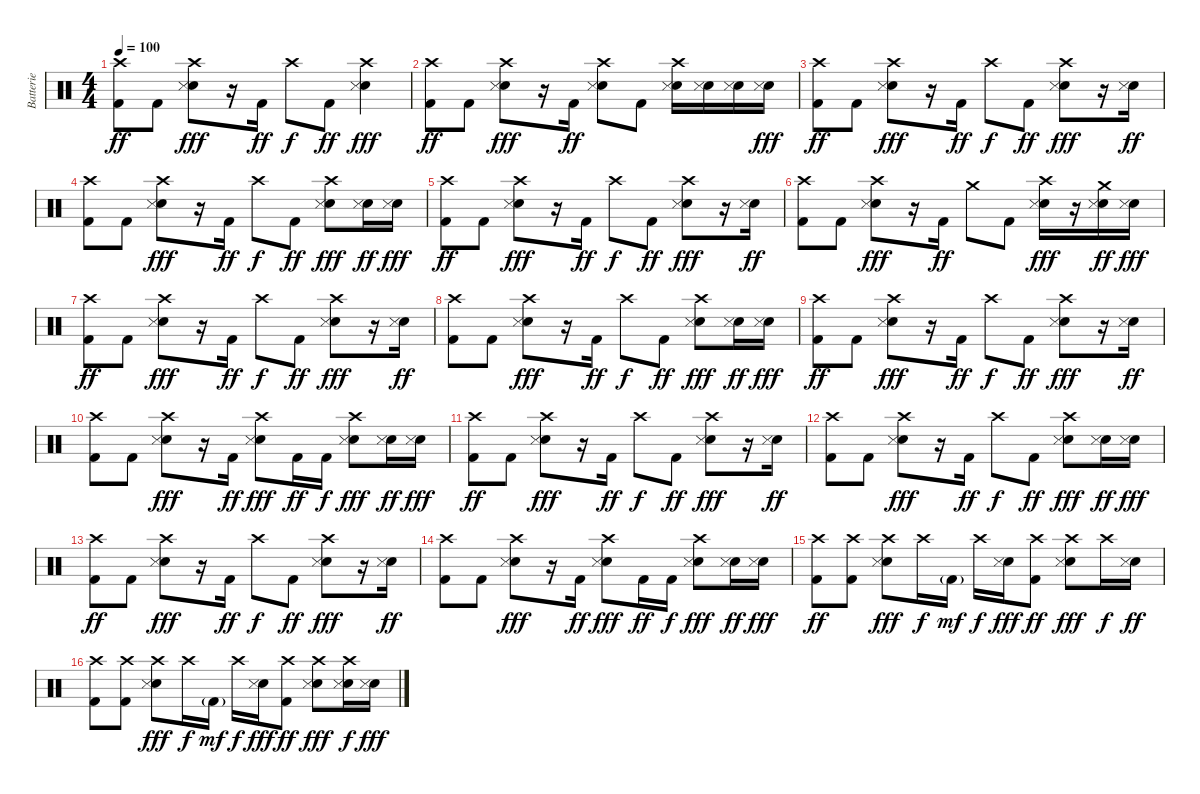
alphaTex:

\track ("Batterie" "Batterie") {instrument percussion}
\staff {score}
\articulation defaults
\ts (4 4)
\tempo 100
\clef neutral
\ks c
("Crash high (hit)" "Kick (hit) 2").8{dy ff} "Kick (hit) 2".8 ("Crash high (hit)" "Snare (hit) 2" "Snare (side stick) 3").8{dy fff} r.16 "Kick (hit) 2".16{dy ff} "Crash high (hit)".8{dy f} "Kick (hit) 2".8{dy ff} ("Crash high (hit)" "Snare (hit) 2" "Snare (side stick) 3").4{dy fff} |
("Crash high (hit)" "Kick (hit) 2").8{dy ff} "Kick (hit) 2".8 ("Crash high (hit)" "Snare (hit) 2" "Snare (side stick) 3").8{dy fff} r.16 "Kick (hit) 2".16{dy ff} ("Crash high (hit)" "Snare (hit) 2" "Snare (side stick) 3").8 "Kick (hit) 2".8 ("Crash high (hit)" "Snare (hit) 2" "Snare (side stick) 3").16 ("Snare (hit) 2" "Snare (side stick) 3").16 ("Snare (hit) 2" "Snare (side stick) 3").16 ("Snare (hit) 2" "Snare (side stick) 3").16{dy fff} |
("Crash high (hit)" "Kick (hit) 2").8{dy ff} "Kick (hit) 2".8 ("Crash high (hit)" "Snare (hit) 2" "Snare (side stick) 3").8{dy fff} r.16 "Kick (hit) 2".16{dy ff} "Crash high (hit)".8{dy f} "Kick (hit) 2".8{dy ff} ("Crash high (hit)" "Snare (hit) 2" "Snare (side stick) 3").8{dy fff} r.16 ("Snare (hit) 2" "Snare (side stick) 3").16{dy ff} |
("Crash high (hit)" "Kick (hit) 2").8 "Kick (hit) 2".8 ("Crash high (hit)" "Snare (hit) 2" "Snare (side stick) 3").8{dy fff} r.16 "Kick (hit) 2".16{dy ff} "Crash high (hit)".8{dy f} "Kick (hit) 2".8{dy ff} ("Crash high (hit)" "Snare (hit) 2" "Snare (side stick) 3").8{dy fff} ("Snare (hit) 2" "Snare (side stick) 3").16{dy ff} ("Snare (hit) 2" "Snare (side stick) 3").16{dy fff} |
("Crash high (hit)" "Kick (hit) 2").8{dy ff} "Kick (hit) 2".8 ("Crash high (hit)" "Snare (hit) 2" "Snare (side stick) 3").8{dy fff} r.16 "Kick (hit) 2".16{dy ff} "Crash high (hit)".8{dy f} "Kick (hit) 2".8{dy ff} ("Crash high (hit)" "Snare (hit) 2" "Snare (side stick) 3").8{dy fff} r.16 ("Snare (hit) 2" "Snare (side stick) 3").16{dy ff} |
("Crash high (hit)" "Kick (hit) 2").8 "Kick (hit) 2".8 ("Crash high (hit)" "Snare (hit) 2" "Snare (side stick) 3").8{dy fff} r.16 "Kick (hit) 2".16{dy ff} "Crash medium (hit)".8 "Kick (hit) 2".8 ("Crash high (hit)" "Snare (hit) 2" "Snare (side stick) 3").16{dy fff} r.16 ("Crash medium (hit)" "Snare (hit) 2" "Snare (side stick) 3").16{dy ff} ("Snare (hit) 2" "Snare (side stick) 3").16{dy fff} |
("Crash high (hit)" "Kick (hit) 2").8{dy ff} "Kick (hit) 2".8 ("Crash high (hit)" "Snare (hit) 2" "Snare (side stick) 3").8{dy fff} r.16 "Kick (hit) 2".16{dy ff} "Crash high (hit)".8{dy f} "Kick (hit) 2".8{dy ff} ("Crash high (hit)" "Snare (hit) 2" "Snare (side stick) 3").8{dy fff} r.16 ("Snare (hit) 2" "Snare (side stick) 3").16{dy ff} |
("Crash high (hit)" "Kick (hit) 2").8 "Kick (hit) 2".8 ("Crash high (hit)" "Snare (hit) 2" "Snare (side stick) 3").8{dy fff} r.16 "Kick (hit) 2".16{dy ff} "Crash high (hit)".8{dy f} "Kick (hit) 2".8{dy ff} ("Crash high (hit)" "Snare (hit) 2" "Snare (side stick) 3").8{dy fff} ("Snare (hit) 2" "Snare (side stick) 3").16{dy ff} ("Snare (hit) 2" "Snare (side stick) 3").16{dy fff} |
("Crash high (hit)" "Kick (hit) 2").8{dy ff} "Kick (hit) 2".8 ("Crash high (hit)" "Snare (hit) 2" "Snare (side stick) 3").8{dy fff} r.16 "Kick (hit) 2".16{dy ff} "Crash high (hit)".8{dy f} "Kick (hit) 2".8{dy ff} ("Crash high (hit)" "Snare (hit) 2" "Snare (side stick) 3").8{dy fff} r.16 ("Snare (hit) 2" "Snare (side stick) 3").16{dy ff} |
("Crash high (hit)" "Kick (hit) 2").8 "Kick (hit) 2".8 ("Crash high (hit)" "Snare (hit) 2" "Snare (side stick) 3").8{dy fff} r.16 "Kick (hit) 2".16{dy ff} ("Crash high (hit)" "Snare (hit) 2" "Snare (side stick) 3").8{dy fff} "Kick (hit) 2".16{dy ff} "Kick (hit) 2".16{dy f} ("Crash high (hit)" "Snare (hit) 2" "Snare (side stick) 3").8{dy fff} ("Snare (hit) 2" "Snare (side stick) 3").16{dy ff} ("Snare (hit) 2" "Snare (side stick) 3").16{dy fff} |
("Crash high (hit)" "Kick (hit) 2").8{dy ff} "Kick (hit) 2".8 ("Crash high (hit)" "Snare (hit) 2" "Snare (side stick) 3").8{dy fff} r.16 "Kick (hit) 2".16{dy ff} "Crash high (hit)".8{dy f} "Kick (hit) 2".8{dy ff} ("Crash high (hit)" "Snare (hit) 2" "Snare (side stick) 3").8{dy fff} r.16 ("Snare (hit) 2" "Snare (side stick) 3").16{dy ff} |
("Crash high (hit)" "Kick (hit) 2").8 "Kick (hit) 2".8 ("Crash high (hit)" "Snare (hit) 2" "Snare (side stick) 3").8{dy fff} r.16 "Kick (hit) 2".16{dy ff} "Crash high (hit)".8{dy f} "Kick (hit) 2".8{dy ff} ("Crash high (hit)" "Snare (hit) 2" "Snare (side stick) 3").8{dy fff} ("Snare (hit) 2" "Snare (side stick) 3").16{dy ff} ("Snare (hit) 2" "Snare (side stick) 3").16{dy fff} |
("Crash high (hit)" "Kick (hit) 2").8{dy ff} "Kick (hit) 2".8 ("Crash high (hit)" "Snare (hit) 2" "Snare (side stick) 3").8{dy fff} r.16 "Kick (hit) 2".16{dy ff} "Crash high (hit)".8{dy f} "Kick (hit) 2".8{dy ff} ("Crash high (hit)" "Snare (hit) 2" "Snare (side stick) 3").8{dy fff} r.16 ("Snare (hit) 2" "Snare (side stick) 3").16{dy ff} |
("Crash high (hit)" "Kick (hit) 2").8 "Kick (hit) 2".8 ("Crash high (hit)" "Snare (hit) 2" "Snare (side stick) 3").8{dy fff} r.16 "Kick (hit) 2".16{dy ff} ("Crash high (hit)" "Snare (hit) 2" "Snare (side stick) 3").8{dy fff} "Kick (hit) 2".16{dy ff} "Kick (hit) 2".16{dy f} ("Crash high (hit)" "Snare (hit) 2" "Snare (side stick) 3").8{dy fff} ("Snare (hit) 2" "Snare (side stick) 3").16{dy ff} ("Snare (hit) 2" "Snare (side stick) 3").16{dy fff} |
("Crash high (hit)" "Kick (hit) 2").8{dy ff} ("Crash high (hit)" "Kick (hit) 2").8 ("Crash high (hit)" "Snare (hit) 2" "Snare (side stick) 3").8{dy fff} "Crash high (hit)".16{dy f} "Kick (hit) 2"{g}.16{dy mf} "Crash high (hit)".16{dy f} ("Snare (hit) 2" "Snare (side stick) 3").16{dy fff} ("Crash high (hit)" "Kick (hit) 2").8{dy ff} ("Crash high (hit)" "Snare (hit) 2" "Snare (side stick) 3").8{dy fff} "Crash high (hit)".16{dy f} ("Snare (hit) 2" "Snare (side stick) 3").16{dy ff} |
("Crash high (hit)" "Kick (hit) 2").8 ("Crash high (hit)" "Kick (hit) 2").8 ("Crash high (hit)" "Snare (hit) 2" "Snare (side stick) 3").8{dy fff} "Crash high (hit)".16{dy f} "Kick (hit) 2"{g}.16{dy mf} "Crash high (hit)".16{dy f} ("Snare (hit) 2" "Snare (side stick) 3").16{dy fff} ("Crash high (hit)" "Kick (hit) 2").8{dy ff} ("Crash high (hit)" "Snare (hit) 2" "Snare (side stick) 3").8{dy fff} ("Crash high (hit)" "Snare (hit) 2" "Snare (side stick) 3").16{dy f} ("Snare (hit) 2" "Snare (side stick) 3").16{dy fff}
